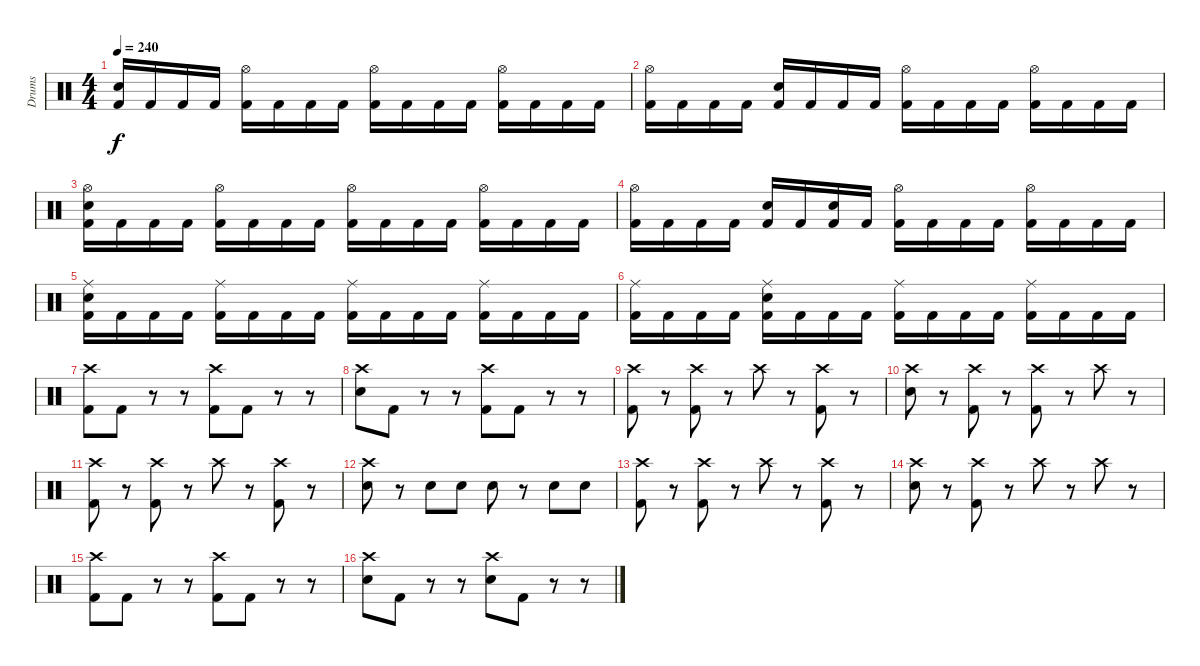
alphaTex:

\track ("Drums" "Drums") {instrument percussion}
\staff {score}
\articulation defaults
\ts (4 4)
\tempo 240
\clef neutral
\ks c
("Snare (hit) 2" "Kick (hit) 2").16{dy f} "Kick (hit) 2".16 "Kick (hit) 2".16 "Kick (hit) 2".16 ("Hi-Hat (open)" "Kick (hit) 2").16 "Kick (hit) 2".16 "Kick (hit) 2".16 "Kick (hit) 2".16 ("Hi-Hat (open)" "Kick (hit) 2").16 "Kick (hit) 2".16 "Kick (hit) 2".16 "Kick (hit) 2".16 ("Hi-Hat (open)" "Kick (hit) 2").16 "Kick (hit) 2".16 "Kick (hit) 2".16 "Kick (hit) 2".16 |
("Hi-Hat (open)" "Kick (hit) 2").16 "Kick (hit) 2".16 "Kick (hit) 2".16 "Kick (hit) 2".16 ("Snare (hit) 2" "Kick (hit) 2").16 "Kick (hit) 2".16 "Kick (hit) 2".16 "Kick (hit) 2".16 ("Hi-Hat (open)" "Kick (hit) 2").16 "Kick (hit) 2".16 "Kick (hit) 2".16 "Kick (hit) 2".16 ("Hi-Hat (open)" "Kick (hit) 2").16 "Kick (hit) 2".16 "Kick (hit) 2".16 "Kick (hit) 2".16 |
("Hi-Hat (open)" "Snare (hit) 2" "Kick (hit) 2").16 "Kick (hit) 2".16 "Kick (hit) 2".16 "Kick (hit) 2".16 ("Hi-Hat (open)" "Kick (hit) 2").16 "Kick (hit) 2".16 "Kick (hit) 2".16 "Kick (hit) 2".16 ("Hi-Hat (open)" "Kick (hit) 2").16 "Kick (hit) 2".16 "Kick (hit) 2".16 "Kick (hit) 2".16 ("Hi-Hat (open)" "Kick (hit) 2").16 "Kick (hit) 2".16 "Kick (hit) 2".16 "Kick (hit) 2".16 |
("Hi-Hat (open)" "Kick (hit) 2").16 "Kick (hit) 2".16 "Kick (hit) 2".16 "Kick (hit) 2".16 ("Snare (hit) 2" "Kick (hit) 2").16 "Kick (hit) 2".16 ("Snare (hit) 2" "Kick (hit) 2").16 "Kick (hit) 2".16 ("Hi-Hat (open)" "Kick (hit) 2").16 "Kick (hit) 2".16 "Kick (hit) 2".16 "Kick (hit) 2".16 ("Hi-Hat (open)" "Kick (hit) 2").16 "Kick (hit) 2".16 "Kick (hit) 2".16 "Kick (hit) 2".16 |
("Ride (middle)" "Snare (hit) 2" "Kick (hit) 2").16 "Kick (hit) 2".16 "Kick (hit) 2".16 "Kick (hit) 2".16 ("Ride (middle)" "Kick (hit) 2").16 "Kick (hit) 2".16 "Kick (hit) 2".16 "Kick (hit) 2".16 ("Ride (middle)" "Kick (hit) 2").16 "Kick (hit) 2".16 "Kick (hit) 2".16 "Kick (hit) 2".16 ("Ride (middle)" "Kick (hit) 2").16 "Kick (hit) 2".16 "Kick (hit) 2".16 "Kick (hit) 2".16 |
("Ride (middle)" "Kick (hit) 2").16 "Kick (hit) 2".16 "Kick (hit) 2".16 "Kick (hit) 2".16 ("Ride (middle)" "Snare (hit) 2" "Kick (hit) 2").16 "Kick (hit) 2".16 "Kick (hit) 2".16 "Kick (hit) 2".16 ("Ride (middle)" "Kick (hit) 2").16 "Kick (hit) 2".16 "Kick (hit) 2".16 "Kick (hit) 2".16 ("Ride (middle)" "Kick (hit) 2").16 "Kick (hit) 2".16 "Kick (hit) 2".16 "Kick (hit) 2".16 |
("Crash high (hit)" "Kick (hit) 2").8 "Kick (hit) 2".8 r.8 r.8 ("Crash high (hit)" "Kick (hit) 2").8 "Kick (hit) 2".8 r.8 r.8 |
("Crash high (hit)" "Snare (hit) 2").8 "Kick (hit) 2".8 r.8 r.8 ("Crash high (hit)" "Kick (hit) 2").8 "Kick (hit) 2".8 r.8 r.8 |
("Crash high (hit)" "Kick (hit) 2").8 r.8 ("Crash high (hit)" "Kick (hit) 2").8 r.8 "Crash high (hit)".8 r.8 ("Crash high (hit)" "Kick (hit) 2").8 r.8 |
("Crash high (hit)" "Snare (hit) 2").8 r.8 ("Crash high (hit)" "Kick (hit) 2").8 r.8 ("Crash high (hit)" "Kick (hit) 2").8 r.8 "Crash high (hit)".8 r.8 |
("Crash high (hit)" "Kick (hit) 2").8 r.8 ("Crash high (hit)" "Kick (hit) 2").8 r.8 "Crash high (hit)".8 r.8 ("Crash high (hit)" "Kick (hit) 2").8 r.8 |
("Crash high (hit)" "Snare (hit) 2").8 r.8 "Snare (hit) 2".8 "Snare (hit) 2".8 "Snare (hit) 2".8 r.8 "Snare (hit) 2".8 "Snare (hit) 2".8 |
("Crash high (hit)" "Kick (hit) 2").8 r.8 ("Crash high (hit)" "Kick (hit) 2").8 r.8 "Crash high (hit)".8 r.8 ("Crash high (hit)" "Kick (hit) 2").8 r.8 |
("Crash high (hit)" "Snare (hit) 2").8 r.8 ("Crash high (hit)" "Kick (hit) 2").8 r.8 "Crash high (hit)".8 r.8 "Crash high (hit)".8 r.8 |
("Crash high (hit)" "Kick (hit) 2").8 "Kick (hit) 2".8 r.8 r.8 ("Crash high (hit)" "Kick (hit) 2").8 "Kick (hit) 2".8 r.8 r.8 |
("Crash high (hit)" "Snare (hit) 2").8 "Kick (hit) 2".8 r.8 r.8 ("Crash high (hit)" "Snare (hit) 2").8 "Kick (hit) 2".8 r.8 r.8
